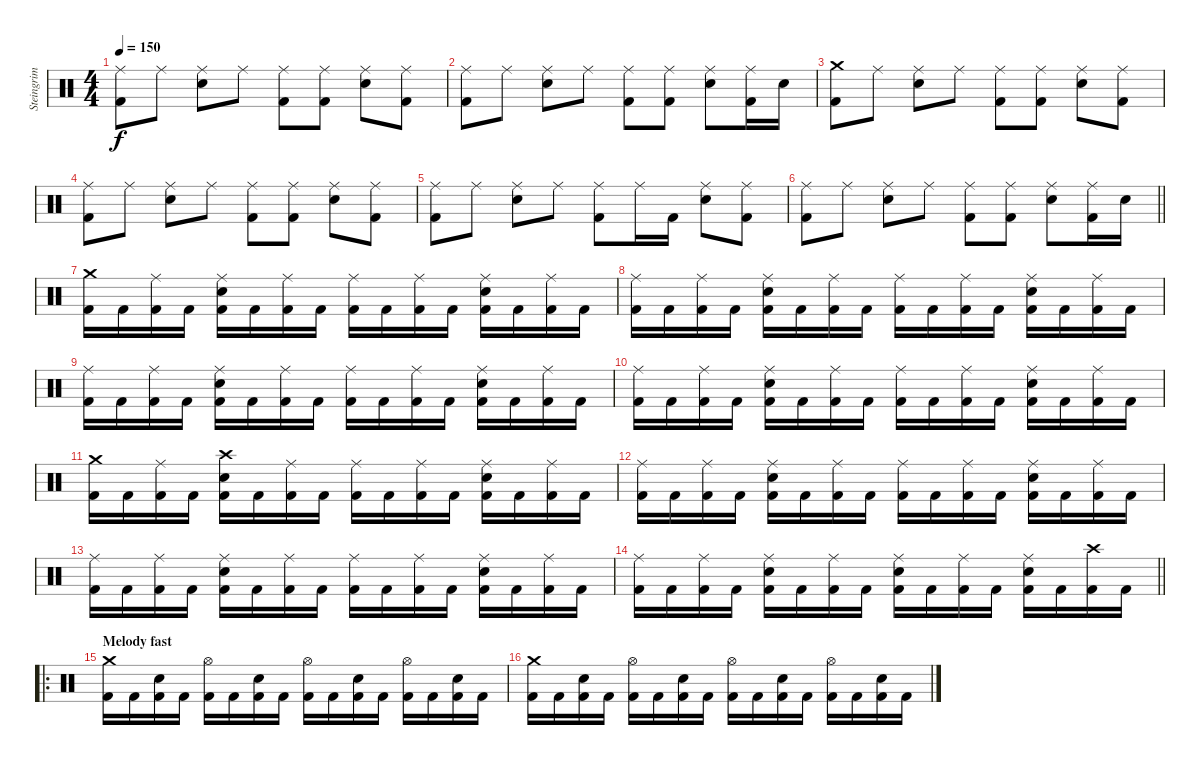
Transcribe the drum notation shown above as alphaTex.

\track ("Steingrim" "Steingrim") {instrument percussion}
\staff {score}
\articulation defaults
\ts (4 4)
\tempo 150
\clef neutral
\ks c
("Ride (middle)" "Kick (hit) 2").8{dy f} "Ride (middle)".8 ("Ride (middle)" "Snare (hit) 2").8 "Ride (middle)".8 ("Ride (middle)" "Kick (hit) 2").8 ("Ride (middle)" "Kick (hit) 2").8 ("Ride (middle)" "Snare (hit) 2").8 ("Ride (middle)" "Kick (hit) 2").8 |
("Ride (middle)" "Kick (hit) 2").8 "Ride (middle)".8 ("Ride (middle)" "Snare (hit) 2").8 "Ride (middle)".8 ("Ride (middle)" "Kick (hit) 2").8 ("Ride (middle)" "Kick (hit) 2").8 ("Ride (middle)" "Snare (hit) 2").8 ("Ride (middle)" "Kick (hit) 2").16 "Snare (hit) 2".16 |
("Crash medium (hit)" "Kick (hit) 2").8 "Ride (middle)".8 ("Ride (middle)" "Snare (hit) 2").8 "Ride (middle)".8 ("Ride (middle)" "Kick (hit) 2").8 ("Ride (middle)" "Kick (hit) 2").8 ("Ride (middle)" "Snare (hit) 2").8 ("Ride (middle)" "Kick (hit) 2").8 |
("Ride (middle)" "Kick (hit) 2").8 "Ride (middle)".8 ("Ride (middle)" "Snare (hit) 2").8 "Ride (middle)".8 ("Ride (middle)" "Kick (hit) 2").8 ("Ride (middle)" "Kick (hit) 2").8 ("Ride (middle)" "Snare (hit) 2").8 ("Ride (middle)" "Kick (hit) 2").8 |
("Ride (middle)" "Kick (hit) 2").8 "Ride (middle)".8 ("Ride (middle)" "Snare (hit) 2").8 "Ride (middle)".8 ("Ride (middle)" "Kick (hit) 2").8 "Ride (middle)".16 "Kick (hit) 2".16 ("Ride (middle)" "Snare (hit) 2").8 ("Ride (middle)" "Kick (hit) 2").8 |
\barLineRight lightlight
("Ride (middle)" "Kick (hit) 2").8 "Ride (middle)".8 ("Ride (middle)" "Snare (hit) 2").8 "Ride (middle)".8 ("Ride (middle)" "Kick (hit) 2").8 ("Ride (middle)" "Kick (hit) 2").8 ("Ride (middle)" "Snare (hit) 2").8 ("Ride (middle)" "Kick (hit) 2").16 "Snare (hit) 2".16 |
("Crash medium (hit)" "Kick (hit) 2").16 "Kick (hit) 2".16 ("Ride (middle)" "Kick (hit) 2").16 "Kick (hit) 2".16 ("Ride (middle)" "Snare (hit) 2" "Kick (hit) 2").16 "Kick (hit) 2".16 ("Ride (middle)" "Kick (hit) 2").16 "Kick (hit) 2".16 ("Ride (middle)" "Kick (hit) 2").16 "Kick (hit) 2".16 ("Ride (middle)" "Kick (hit) 2").16 "Kick (hit) 2".16 ("Ride (middle)" "Snare (hit) 2" "Kick (hit) 2").16 "Kick (hit) 2".16 ("Ride (middle)" "Kick (hit) 2").16 "Kick (hit) 2".16 |
("Ride (middle)" "Kick (hit) 2").16 "Kick (hit) 2".16 ("Ride (middle)" "Kick (hit) 2").16 "Kick (hit) 2".16 ("Ride (middle)" "Snare (hit) 2" "Kick (hit) 2").16 "Kick (hit) 2".16 ("Ride (middle)" "Kick (hit) 2").16 "Kick (hit) 2".16 ("Ride (middle)" "Kick (hit) 2").16 "Kick (hit) 2".16 ("Ride (middle)" "Kick (hit) 2").16 "Kick (hit) 2".16 ("Ride (middle)" "Snare (hit) 2" "Kick (hit) 2").16 "Kick (hit) 2".16 ("Ride (middle)" "Kick (hit) 2").16 "Kick (hit) 2".16 |
("Ride (middle)" "Kick (hit) 2").16 "Kick (hit) 2".16 ("Ride (middle)" "Kick (hit) 2").16 "Kick (hit) 2".16 ("Ride (middle)" "Snare (hit) 2" "Kick (hit) 2").16 "Kick (hit) 2".16 ("Ride (middle)" "Kick (hit) 2").16 "Kick (hit) 2".16 ("Ride (middle)" "Kick (hit) 2").16 "Kick (hit) 2".16 ("Ride (middle)" "Kick (hit) 2").16 "Kick (hit) 2".16 ("Ride (middle)" "Snare (hit) 2" "Kick (hit) 2").16 "Kick (hit) 2".16 ("Ride (middle)" "Kick (hit) 2").16 "Kick (hit) 2".16 |
("Ride (middle)" "Kick (hit) 2").16 "Kick (hit) 2".16 ("Ride (middle)" "Kick (hit) 2").16 "Kick (hit) 2".16 ("Ride (middle)" "Snare (hit) 2" "Kick (hit) 2").16 "Kick (hit) 2".16 ("Ride (middle)" "Kick (hit) 2").16 "Kick (hit) 2".16 ("Ride (middle)" "Kick (hit) 2").16 "Kick (hit) 2".16 ("Ride (middle)" "Kick (hit) 2").16 "Kick (hit) 2".16 ("Ride (middle)" "Snare (hit) 2" "Kick (hit) 2").16 "Kick (hit) 2".16 ("Ride (middle)" "Kick (hit) 2").16 "Kick (hit) 2".16 |
("Crash medium (hit)" "Kick (hit) 2").16 "Kick (hit) 2".16 ("Ride (middle)" "Kick (hit) 2").16 "Kick (hit) 2".16 ("Crash high (hit)" "Snare (hit) 2" "Kick (hit) 2").16 "Kick (hit) 2".16 ("Ride (middle)" "Kick (hit) 2").16 "Kick (hit) 2".16 ("Ride (middle)" "Kick (hit) 2").16 "Kick (hit) 2".16 ("Ride (middle)" "Kick (hit) 2").16 "Kick (hit) 2".16 ("Ride (middle)" "Snare (hit) 2" "Kick (hit) 2").16 "Kick (hit) 2".16 ("Ride (middle)" "Kick (hit) 2").16 "Kick (hit) 2".16 |
("Ride (middle)" "Kick (hit) 2").16 "Kick (hit) 2".16 ("Ride (middle)" "Kick (hit) 2").16 "Kick (hit) 2".16 ("Ride (middle)" "Snare (hit) 2" "Kick (hit) 2").16 "Kick (hit) 2".16 ("Ride (middle)" "Kick (hit) 2").16 "Kick (hit) 2".16 ("Ride (middle)" "Kick (hit) 2").16 "Kick (hit) 2".16 ("Ride (middle)" "Kick (hit) 2").16 "Kick (hit) 2".16 ("Ride (middle)" "Snare (hit) 2" "Kick (hit) 2").16 "Kick (hit) 2".16 ("Ride (middle)" "Kick (hit) 2").16 "Kick (hit) 2".16 |
("Ride (middle)" "Kick (hit) 2").16 "Kick (hit) 2".16 ("Ride (middle)" "Kick (hit) 2").16 "Kick (hit) 2".16 ("Ride (middle)" "Snare (hit) 2" "Kick (hit) 2").16 "Kick (hit) 2".16 ("Ride (middle)" "Kick (hit) 2").16 "Kick (hit) 2".16 ("Ride (middle)" "Kick (hit) 2").16 "Kick (hit) 2".16 ("Ride (middle)" "Kick (hit) 2").16 "Kick (hit) 2".16 ("Ride (middle)" "Snare (hit) 2" "Kick (hit) 2").16 "Kick (hit) 2".16 ("Ride (middle)" "Kick (hit) 2").16 "Kick (hit) 2".16 |
\barLineRight lightlight
("Ride (middle)" "Kick (hit) 2").16 "Kick (hit) 2".16 ("Ride (middle)" "Kick (hit) 2").16 "Kick (hit) 2".16 ("Ride (middle)" "Snare (hit) 2" "Kick (hit) 2").16 "Kick (hit) 2".16 ("Ride (middle)" "Kick (hit) 2").16 "Kick (hit) 2".16 ("Ride (middle)" "Snare (hit) 2" "Kick (hit) 2").16 "Kick (hit) 2".16 ("Ride (middle)" "Kick (hit) 2").16 "Kick (hit) 2".16 ("Ride (middle)" "Snare (hit) 2" "Kick (hit) 2").16 "Kick (hit) 2".16 ("Crash high (hit)" "Kick (hit) 2").16 "Kick (hit) 2".16 |
\ro
\section ("" "Melody fast")
("Crash medium (hit)" "Kick (hit) 2").16 "Kick (hit) 2".16 ("Snare (hit) 2" "Kick (hit) 2").16 "Kick (hit) 2".16 ("Hi-Hat (open)" "Kick (hit) 2").16 "Kick (hit) 2".16 ("Snare (hit) 2" "Kick (hit) 2").16 "Kick (hit) 2".16 ("Hi-Hat (open)" "Kick (hit) 2").16 "Kick (hit) 2".16 ("Snare (hit) 2" "Kick (hit) 2").16 "Kick (hit) 2".16 ("Hi-Hat (open)" "Kick (hit) 2").16 "Kick (hit) 2".16 ("Snare (hit) 2" "Kick (hit) 2").16 "Kick (hit) 2".16 |
("Crash medium (hit)" "Kick (hit) 2").16 "Kick (hit) 2".16 ("Snare (hit) 2" "Kick (hit) 2").16 "Kick (hit) 2".16 ("Hi-Hat (open)" "Kick (hit) 2").16 "Kick (hit) 2".16 ("Snare (hit) 2" "Kick (hit) 2").16 "Kick (hit) 2".16 ("Hi-Hat (open)" "Kick (hit) 2").16 "Kick (hit) 2".16 ("Snare (hit) 2" "Kick (hit) 2").16 "Kick (hit) 2".16 ("Hi-Hat (open)" "Kick (hit) 2").16 "Kick (hit) 2".16 ("Snare (hit) 2" "Kick (hit) 2").16 "Kick (hit) 2".16
